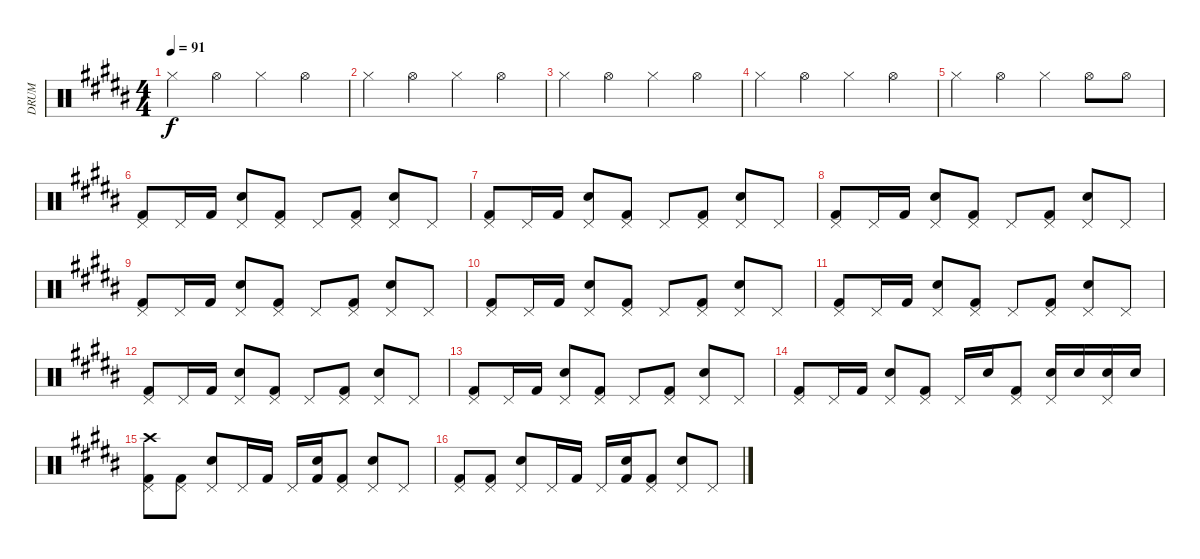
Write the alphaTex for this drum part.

\track ("DRUM" "DRUM") {instrument percussion}
\staff {score}
\articulation defaults
\ts (4 4)
\tempo 91
\clef neutral
\ks b "Hi-Hat (closed)".4{dy f} "Hi-Hat (open)".4 "Hi-Hat (closed)".4 "Hi-Hat (open)".4
|
"Hi-Hat (closed)".4 "Hi-Hat (open)".4 "Hi-Hat (closed)".4 "Hi-Hat (open)".4 |
"Hi-Hat (closed)".4 "Hi-Hat (open)".4 "Hi-Hat (closed)".4 "Hi-Hat (open)".4 |
"Hi-Hat (closed)".4 "Hi-Hat (open)".4 "Hi-Hat (closed)".4 "Hi-Hat (open)".4 |
"Hi-Hat (closed)".4 "Hi-Hat (open)".4 "Hi-Hat (closed)".4 "Hi-Hat (open)".8 "Hi-Hat (open)".8 |
("Pedal Hi-Hat (hit)" "Kick (hit) 2").8 "Pedal Hi-Hat (hit)".16 "Kick (hit) 2".16 ("Pedal Hi-Hat (hit)" "Electric Snare (hit)").8 ("Pedal Hi-Hat (hit)" "Kick (hit) 2").8 "Pedal Hi-Hat (hit)".8 ("Pedal Hi-Hat (hit)" "Kick (hit) 2").8 ("Pedal Hi-Hat (hit)" "Electric Snare (hit)").8 "Pedal Hi-Hat (hit)".8 |
("Pedal Hi-Hat (hit)" "Kick (hit) 2").8 "Pedal Hi-Hat (hit)".16 "Kick (hit) 2".16 ("Pedal Hi-Hat (hit)" "Electric Snare (hit)").8 ("Pedal Hi-Hat (hit)" "Kick (hit) 2").8 "Pedal Hi-Hat (hit)".8 ("Pedal Hi-Hat (hit)" "Kick (hit) 2").8 ("Pedal Hi-Hat (hit)" "Electric Snare (hit)").8 "Pedal Hi-Hat (hit)".8 |
("Pedal Hi-Hat (hit)" "Kick (hit) 2").8 "Pedal Hi-Hat (hit)".16 "Kick (hit) 2".16 ("Pedal Hi-Hat (hit)" "Electric Snare (hit)").8 ("Pedal Hi-Hat (hit)" "Kick (hit) 2").8 "Pedal Hi-Hat (hit)".8 ("Pedal Hi-Hat (hit)" "Kick (hit) 2").8 ("Pedal Hi-Hat (hit)" "Electric Snare (hit)").8 "Pedal Hi-Hat (hit)".8 |
("Pedal Hi-Hat (hit)" "Kick (hit) 2").8 "Pedal Hi-Hat (hit)".16 "Kick (hit) 2".16 ("Pedal Hi-Hat (hit)" "Electric Snare (hit)").8 ("Pedal Hi-Hat (hit)" "Kick (hit) 2").8 "Pedal Hi-Hat (hit)".8 ("Pedal Hi-Hat (hit)" "Kick (hit) 2").8 ("Pedal Hi-Hat (hit)" "Electric Snare (hit)").8 "Pedal Hi-Hat (hit)".8 |
("Pedal Hi-Hat (hit)" "Kick (hit) 2").8 "Pedal Hi-Hat (hit)".16 "Kick (hit) 2".16 ("Pedal Hi-Hat (hit)" "Electric Snare (hit)").8 ("Pedal Hi-Hat (hit)" "Kick (hit) 2").8 "Pedal Hi-Hat (hit)".8 ("Pedal Hi-Hat (hit)" "Kick (hit) 2").8 ("Pedal Hi-Hat (hit)" "Electric Snare (hit)").8 "Pedal Hi-Hat (hit)".8 |
("Pedal Hi-Hat (hit)" "Kick (hit) 2").8 "Pedal Hi-Hat (hit)".16 "Kick (hit) 2".16 ("Pedal Hi-Hat (hit)" "Electric Snare (hit)").8 ("Pedal Hi-Hat (hit)" "Kick (hit) 2").8 "Pedal Hi-Hat (hit)".8 ("Pedal Hi-Hat (hit)" "Kick (hit) 2").8 ("Pedal Hi-Hat (hit)" "Electric Snare (hit)").8 "Pedal Hi-Hat (hit)".8 |
("Pedal Hi-Hat (hit)" "Kick (hit) 2").8 "Pedal Hi-Hat (hit)".16 "Kick (hit) 2".16 ("Pedal Hi-Hat (hit)" "Electric Snare (hit)").8 ("Pedal Hi-Hat (hit)" "Kick (hit) 2").8 "Pedal Hi-Hat (hit)".8 ("Pedal Hi-Hat (hit)" "Kick (hit) 2").8 ("Pedal Hi-Hat (hit)" "Electric Snare (hit)").8 "Pedal Hi-Hat (hit)".8 |
("Pedal Hi-Hat (hit)" "Kick (hit) 2").8 "Pedal Hi-Hat (hit)".16 "Kick (hit) 2".16 ("Pedal Hi-Hat (hit)" "Electric Snare (hit)").8 ("Pedal Hi-Hat (hit)" "Kick (hit) 2").8 "Pedal Hi-Hat (hit)".8 ("Pedal Hi-Hat (hit)" "Kick (hit) 2").8 ("Pedal Hi-Hat (hit)" "Electric Snare (hit)").8 "Pedal Hi-Hat (hit)".8 |
("Pedal Hi-Hat (hit)" "Kick (hit) 2").8 "Pedal Hi-Hat (hit)".16 "Kick (hit) 2".16 ("Pedal Hi-Hat (hit)" "Electric Snare (hit)").8 ("Pedal Hi-Hat (hit)" "Kick (hit) 2").8 "Pedal Hi-Hat (hit)".16 "Electric Snare (hit)".16 ("Pedal Hi-Hat (hit)" "Kick (hit) 2").8 ("Pedal Hi-Hat (hit)" "Electric Snare (hit)").16 "Electric Snare (hit)".16 ("Pedal Hi-Hat (hit)" "Electric Snare (hit)").16 "Electric Snare (hit)".16 |
("Crash high (hit)" "Pedal Hi-Hat (hit)" "Kick (hit) 2").8 ("Pedal Hi-Hat (hit)" "Kick (hit) 2").8 ("Pedal Hi-Hat (hit)" "Electric Snare (hit)").8 "Pedal Hi-Hat (hit)".16 "Kick (hit) 2".16 "Pedal Hi-Hat (hit)".16 ("Electric Snare (hit)" "Kick (hit) 2").16 ("Pedal Hi-Hat (hit)" "Kick (hit) 2").8 ("Pedal Hi-Hat (hit)" "Electric Snare (hit)").8 "Pedal Hi-Hat (hit)".8 |
("Pedal Hi-Hat (hit)" "Kick (hit) 2").8 ("Pedal Hi-Hat (hit)" "Kick (hit) 2").8 ("Pedal Hi-Hat (hit)" "Electric Snare (hit)").8 "Pedal Hi-Hat (hit)".16 "Kick (hit) 2".16 "Pedal Hi-Hat (hit)".16 ("Electric Snare (hit)" "Kick (hit) 2").16 ("Pedal Hi-Hat (hit)" "Kick (hit) 2").8 ("Pedal Hi-Hat (hit)" "Electric Snare (hit)").8 "Pedal Hi-Hat (hit)".8
